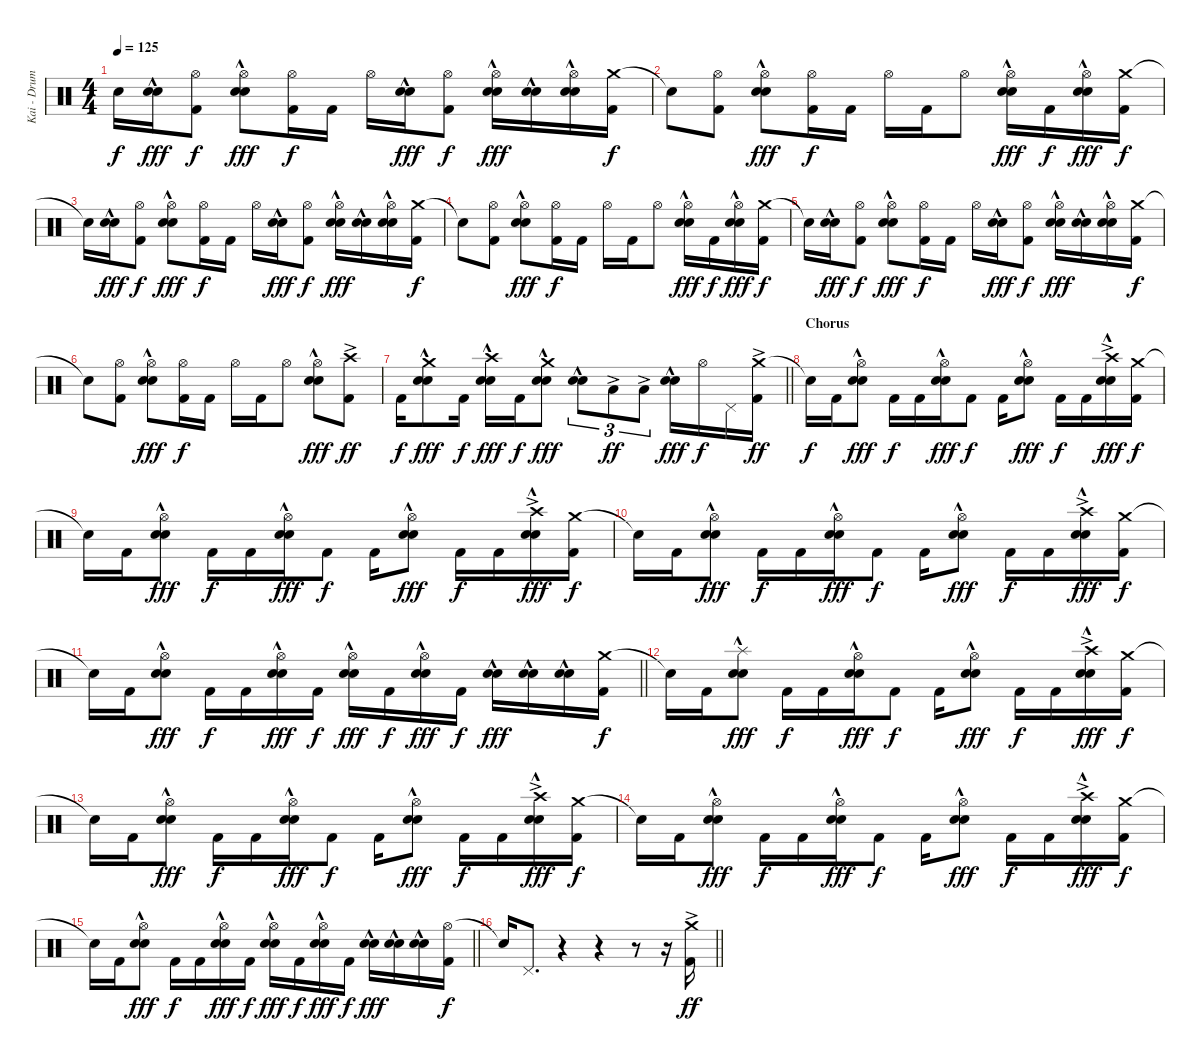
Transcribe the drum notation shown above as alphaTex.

\track ("Kai - Drums" "Kai - Drum") {instrument percussion}
\staff {score}
\articulation defaults
\ts (4 4)
\tempo 125
\clef neutral
\ks c "Snare (hit)"{t}.16{dy f}
("Electric Snare (hit)"{hac} "Snare (hit) 2").16{dy fff} ("Hi-Hat (open)" "Kick (hit) 2").8{dy f} ("Hi-Hat (open)" "Electric Snare (hit)"{hac} "Snare (hit) 2").8{dy fff} ("Hi-Hat (open)" "Kick (hit) 2").16{dy f} "Kick (hit) 2".16 "Hi-Hat (open)".16 ("Electric Snare (hit)"{hac} "Snare (hit) 2").16{dy fff} ("Hi-Hat (open)" "Kick (hit) 2").8{dy f} ("Hi-Hat (open)" "Electric Snare (hit)"{hac} "Snare (hit) 2").16{dy fff} ("Electric Snare (hit)"{hac} "Snare (hit) 2").16 ("Hi-Hat (open)" "Electric Snare (hit)"{hac} "Snare (hit) 2").16 ("Crash medium (hit)" "Kick (hit) 2").16{dy f} |
"Snare (hit)"{t}.8 ("Hi-Hat (open)" "Kick (hit) 2").8 ("Hi-Hat (open)" "Electric Snare (hit)"{hac} "Snare (hit) 2").8{dy fff} ("Hi-Hat (open)" "Kick (hit) 2").16{dy f} "Kick (hit) 2".16 "Hi-Hat (open)".16 "Kick (hit) 2".16 "Hi-Hat (open)".8 ("Hi-Hat (open)" "Electric Snare (hit)"{hac} "Snare (hit) 2").16{dy fff} "Kick (hit) 2".16{dy f} ("Hi-Hat (open)" "Electric Snare (hit)"{hac} "Snare (hit) 2").16{dy fff} ("Crash medium (hit)" "Kick (hit) 2").16{dy f} |
"Snare (hit)"{t}.16 ("Electric Snare (hit)"{hac} "Snare (hit) 2").16{dy fff} ("Hi-Hat (open)" "Kick (hit) 2").8{dy f} ("Hi-Hat (open)" "Electric Snare (hit)"{hac} "Snare (hit) 2").8{dy fff} ("Hi-Hat (open)" "Kick (hit) 2").16{dy f} "Kick (hit) 2".16 "Hi-Hat (open)".16 ("Electric Snare (hit)"{hac} "Snare (hit) 2").16{dy fff} ("Hi-Hat (open)" "Kick (hit) 2").8{dy f} ("Hi-Hat (open)" "Electric Snare (hit)"{hac} "Snare (hit) 2").16{dy fff} ("Electric Snare (hit)"{hac} "Snare (hit) 2").16 ("Hi-Hat (open)" "Electric Snare (hit)"{hac} "Snare (hit) 2").16 ("Crash medium (hit)" "Kick (hit) 2").16{dy f} |
"Snare (hit)"{t}.8 ("Hi-Hat (open)" "Kick (hit) 2").8 ("Hi-Hat (open)" "Electric Snare (hit)"{hac} "Snare (hit) 2").8{dy fff} ("Hi-Hat (open)" "Kick (hit) 2").16{dy f} "Kick (hit) 2".16 "Hi-Hat (open)".16 "Kick (hit) 2".16 "Hi-Hat (open)".8 ("Hi-Hat (open)" "Electric Snare (hit)"{hac} "Snare (hit) 2").16{dy fff} "Kick (hit) 2".16{dy f} ("Hi-Hat (open)" "Electric Snare (hit)"{hac} "Snare (hit) 2").16{dy fff} ("Crash medium (hit)" "Kick (hit) 2").16{dy f} |
"Snare (hit)"{t}.16 ("Electric Snare (hit)"{hac} "Snare (hit) 2").16{dy fff} ("Hi-Hat (open)" "Kick (hit) 2").8{dy f} ("Hi-Hat (open)" "Electric Snare (hit)"{hac} "Snare (hit) 2").8{dy fff} ("Hi-Hat (open)" "Kick (hit) 2").16{dy f} "Kick (hit) 2".16 "Hi-Hat (open)".16 ("Electric Snare (hit)"{hac} "Snare (hit) 2").16{dy fff} ("Hi-Hat (open)" "Kick (hit) 2").8{dy f} ("Hi-Hat (open)" "Electric Snare (hit)"{hac} "Snare (hit) 2").16{dy fff} ("Electric Snare (hit)"{hac} "Snare (hit) 2").16 ("Hi-Hat (open)" "Electric Snare (hit)"{hac} "Snare (hit) 2").16 ("Crash medium (hit)" "Kick (hit) 2").16{dy f} |
"Snare (hit)"{t}.8 ("Hi-Hat (open)" "Kick (hit) 2").8 ("Hi-Hat (open)" "Electric Snare (hit)"{hac} "Snare (hit) 2").8{dy fff} ("Hi-Hat (open)" "Kick (hit) 2").16{dy f} "Kick (hit) 2".16 "Hi-Hat (open)".16 "Kick (hit) 2".16 "Hi-Hat (open)".8 ("Hi-Hat (open)" "Electric Snare (hit)"{hac} "Snare (hit) 2").8{dy fff} ("Crash high (hit)"{ac} "Kick (hit) 2").8{dy ff} |
\barLineRight lightlight "Kick (hit) 2".16{dy f}
("Crash medium (hit)" "Electric Snare (hit)"{hac} "Snare (hit) 2").8{dy fff} "Kick (hit) 2".16{dy f} ("Crash high (hit)" "Electric Snare (hit)"{hac} "Snare (hit) 2").16{dy fff} "Kick (hit) 2".16{dy f} ("Crash medium (hit)" "Electric Snare (hit)"{hac} "Snare (hit) 2").8{dy fff} ("Electric Snare (hit)"{hac} "Snare (hit) 2").8{tu (3 2)} "Low Tom (hit)"{ac}.8{tu (3 2) dy ff} "Low Tom (hit)"{ac}.8{tu (3 2)} ("Electric Snare (hit)"{hac} "Snare (hit) 2").16{dy fff} "Hi-Hat (open)".16{dy f} "Pedal Hi-Hat (hit)".16 ("Crash medium (hit)"{ac} "Kick (hit) 2").16{dy ff} |
\section ("" "Chorus")
"Snare (hit)"{t}.16{dy f} "Kick (hit) 2".16 ("Hi-Hat (open)" "Electric Snare (hit)"{hac} "Snare (hit) 2").8{dy fff} "Kick (hit) 2".16{dy f} "Kick (hit) 2".16 ("Hi-Hat (open)" "Electric Snare (hit)"{hac} "Snare (hit) 2").16{dy fff} "Kick (hit) 2".8{dy f} "Kick (hit) 2".16 ("Hi-Hat (open)" "Electric Snare (hit)"{hac} "Snare (hit) 2").8{dy fff} "Kick (hit) 2".16{dy f} "Kick (hit) 2".16 ("Crash high (hit)"{ac} "Electric Snare (hit)"{hac} "Snare (hit) 2").16{dy fff} ("Crash medium (hit)" "Kick (hit) 2").16{dy f} |
"Snare (hit)"{t}.16 "Kick (hit) 2".16 ("Hi-Hat (open)" "Electric Snare (hit)"{hac} "Snare (hit) 2").8{dy fff} "Kick (hit) 2".16{dy f} "Kick (hit) 2".16 ("Hi-Hat (open)" "Electric Snare (hit)"{hac} "Snare (hit) 2").16{dy fff} "Kick (hit) 2".8{dy f} "Kick (hit) 2".16 ("Hi-Hat (open)" "Electric Snare (hit)"{hac} "Snare (hit) 2").8{dy fff} "Kick (hit) 2".16{dy f} "Kick (hit) 2".16 ("Crash high (hit)"{ac} "Electric Snare (hit)"{hac} "Snare (hit) 2").16{dy fff} ("Crash medium (hit)" "Kick (hit) 2").16{dy f} |
"Snare (hit)"{t}.16 "Kick (hit) 2".16 ("Hi-Hat (open)" "Electric Snare (hit)"{hac} "Snare (hit) 2").8{dy fff} "Kick (hit) 2".16{dy f} "Kick (hit) 2".16 ("Hi-Hat (open)" "Electric Snare (hit)"{hac} "Snare (hit) 2").16{dy fff} "Kick (hit) 2".8{dy f} "Kick (hit) 2".16 ("Hi-Hat (open)" "Electric Snare (hit)"{hac} "Snare (hit) 2").8{dy fff} "Kick (hit) 2".16{dy f} "Kick (hit) 2".16 ("Crash high (hit)"{ac} "Electric Snare (hit)"{hac} "Snare (hit) 2").16{dy fff} ("Crash medium (hit)" "Kick (hit) 2").16{dy f} |
\barLineRight lightlight "Snare (hit)"{t}.16 "Kick (hit) 2".16
("Hi-Hat (open)" "Electric Snare (hit)"{hac} "Snare (hit) 2").8{dy fff} "Kick (hit) 2".16{dy f} "Kick (hit) 2".16 ("Hi-Hat (open)" "Electric Snare (hit)"{hac} "Snare (hit) 2").16{dy fff} "Kick (hit) 2".16{dy f} ("Hi-Hat (open)" "Electric Snare (hit)"{hac} "Snare (hit) 2").16{dy fff} "Kick (hit) 2".16{dy f} ("Hi-Hat (open)" "Electric Snare (hit)"{hac} "Snare (hit) 2").16{dy fff} "Kick (hit) 2".16{dy f} ("Electric Snare (hit)"{hac} "Snare (hit) 2").16{dy fff} ("Electric Snare (hit)"{hac} "Snare (hit) 2").16 ("Electric Snare (hit)"{hac} "Snare (hit) 2").16 ("Crash medium (hit)" "Kick (hit) 2").16{dy f} |
"Snare (hit)"{t}.16 "Kick (hit) 2".16 ("Splash (hit)"{hac} "Electric Snare (hit)"{hac} "Snare (hit) 2").8{dy fff} "Kick (hit) 2".16{dy f} "Kick (hit) 2".16 ("Hi-Hat (open)" "Electric Snare (hit)"{hac} "Snare (hit) 2").16{dy fff} "Kick (hit) 2".8{dy f} "Kick (hit) 2".16 ("Hi-Hat (open)" "Electric Snare (hit)"{hac} "Snare (hit) 2").8{dy fff} "Kick (hit) 2".16{dy f} "Kick (hit) 2".16 ("Crash high (hit)"{ac} "Electric Snare (hit)"{hac} "Snare (hit) 2").16{dy fff} ("Crash medium (hit)" "Kick (hit) 2").16{dy f} |
"Snare (hit)"{t}.16 "Kick (hit) 2".16 ("Hi-Hat (open)" "Electric Snare (hit)"{hac} "Snare (hit) 2").8{dy fff} "Kick (hit) 2".16{dy f} "Kick (hit) 2".16 ("Hi-Hat (open)" "Electric Snare (hit)"{hac} "Snare (hit) 2").16{dy fff} "Kick (hit) 2".8{dy f} "Kick (hit) 2".16 ("Hi-Hat (open)" "Electric Snare (hit)"{hac} "Snare (hit) 2").8{dy fff} "Kick (hit) 2".16{dy f} "Kick (hit) 2".16 ("Crash high (hit)"{ac} "Electric Snare (hit)"{hac} "Snare (hit) 2").16{dy fff} ("Crash medium (hit)" "Kick (hit) 2").16{dy f} |
"Snare (hit)"{t}.16 "Kick (hit) 2".16 ("Hi-Hat (open)" "Electric Snare (hit)"{hac} "Snare (hit) 2").8{dy fff} "Kick (hit) 2".16{dy f} "Kick (hit) 2".16 ("Hi-Hat (open)" "Electric Snare (hit)"{hac} "Snare (hit) 2").16{dy fff} "Kick (hit) 2".8{dy f} "Kick (hit) 2".16 ("Hi-Hat (open)" "Electric Snare (hit)"{hac} "Snare (hit) 2").8{dy fff} "Kick (hit) 2".16{dy f} "Kick (hit) 2".16 ("Crash high (hit)"{ac} "Electric Snare (hit)"{hac} "Snare (hit) 2").16{dy fff} ("Crash medium (hit)" "Kick (hit) 2").16{dy f} |
\barLineRight lightlight "Snare (hit)"{t}.16 "Kick (hit) 2".16
("Hi-Hat (open)" "Electric Snare (hit)"{hac} "Snare (hit) 2").8{dy fff} "Kick (hit) 2".16{dy f} "Kick (hit) 2".16 ("Hi-Hat (open)" "Electric Snare (hit)"{hac} "Snare (hit) 2").16{dy fff} "Kick (hit) 2".16{dy f} ("Hi-Hat (open)" "Electric Snare (hit)"{hac} "Snare (hit) 2").16{dy fff} "Kick (hit) 2".16{dy f} ("Hi-Hat (open)" "Electric Snare (hit)"{hac} "Snare (hit) 2").16{dy fff} "Kick (hit) 2".16{dy f} ("Electric Snare (hit)"{hac} "Snare (hit) 2").16{dy fff} ("Electric Snare (hit)"{hac} "Snare (hit) 2").16 ("Electric Snare (hit)"{hac} "Snare (hit) 2").16 ("Hi-Hat (open)" "Kick (hit) 2").16{dy f} |
\barLineRight lightlight "Snare (hit)"{t}.16 "Pedal Hi-Hat (hit)".8{d}
r.4 r.4 r.8 r.16 ("Crash medium (hit)"{ac} "Kick (hit) 2").16{dy ff}
